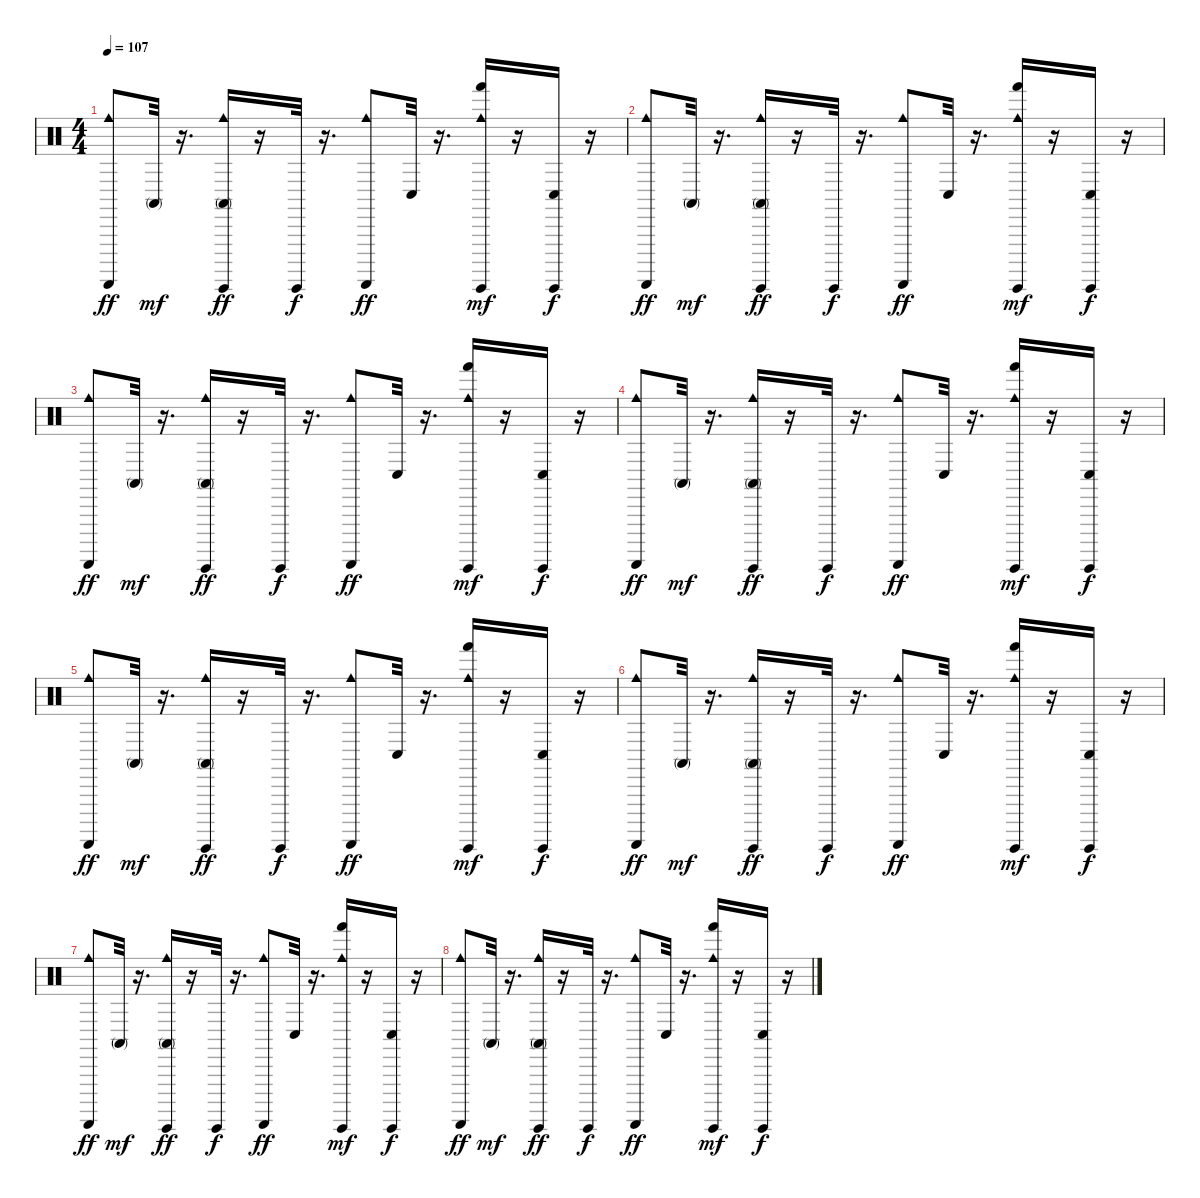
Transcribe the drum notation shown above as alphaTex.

\track "" {instrument percussion}
\staff {score}
\articulation defaults
\ts (4 4)
\tempo 107
\clef neutral
\ks c
("Cowbell medium (hit)" "Guiro (scrap-return)").8{dy ff} "Conga high (mute)".32{dy mf} r.16{d} ("Cowbell medium (hit)" "Conga high (mute)" "Guiro (hit)").16{dy ff} r.16 "Guiro (hit)".32{dy f} r.16{d} ("Cowbell medium (hit)" "Guiro (scrap-return)").8{dy ff} "Conga low (hit)".32 r.16{d} ("Cowbell medium (hit)" "Hand (hit)" "Guiro (hit)").16{dy mf} r.16 ("Conga low (hit)" "Guiro (hit)").16{dy f} r.16 |
("Cowbell medium (hit)" "Guiro (scrap-return)").8{dy ff} "Conga high (mute)".32{dy mf} r.16{d} ("Cowbell medium (hit)" "Conga high (mute)" "Guiro (hit)").16{dy ff} r.16 "Guiro (hit)".32{dy f} r.16{d} ("Cowbell medium (hit)" "Guiro (scrap-return)").8{dy ff} "Conga low (hit)".32 r.16{d} ("Cowbell medium (hit)" "Hand (hit)" "Guiro (hit)").16{dy mf} r.16 ("Conga low (hit)" "Guiro (hit)").16{dy f} r.16 |
("Cowbell medium (hit)" "Guiro (scrap-return)").8{dy ff} "Conga high (mute)".32{dy mf} r.16{d} ("Cowbell medium (hit)" "Conga high (mute)" "Guiro (hit)").16{dy ff} r.16 "Guiro (hit)".32{dy f} r.16{d} ("Cowbell medium (hit)" "Guiro (scrap-return)").8{dy ff} "Conga low (hit)".32 r.16{d} ("Cowbell medium (hit)" "Hand (hit)" "Guiro (hit)").16{dy mf} r.16 ("Conga low (hit)" "Guiro (hit)").16{dy f} r.16 |
("Cowbell medium (hit)" "Guiro (scrap-return)").8{dy ff} "Conga high (mute)".32{dy mf} r.16{d} ("Cowbell medium (hit)" "Conga high (mute)" "Guiro (hit)").16{dy ff} r.16 "Guiro (hit)".32{dy f} r.16{d} ("Cowbell medium (hit)" "Guiro (scrap-return)").8{dy ff} "Conga low (hit)".32 r.16{d} ("Cowbell medium (hit)" "Hand (hit)" "Guiro (hit)").16{dy mf} r.16 ("Conga low (hit)" "Guiro (hit)").16{dy f} r.16 |
("Cowbell medium (hit)" "Guiro (scrap-return)").8{dy ff} "Conga high (mute)".32{dy mf} r.16{d} ("Cowbell medium (hit)" "Conga high (mute)" "Guiro (hit)").16{dy ff} r.16 "Guiro (hit)".32{dy f} r.16{d} ("Cowbell medium (hit)" "Guiro (scrap-return)").8{dy ff} "Conga low (hit)".32 r.16{d} ("Cowbell medium (hit)" "Hand (hit)" "Guiro (hit)").16{dy mf} r.16 ("Conga low (hit)" "Guiro (hit)").16{dy f} r.16 |
("Cowbell medium (hit)" "Guiro (scrap-return)").8{dy ff} "Conga high (mute)".32{dy mf} r.16{d} ("Cowbell medium (hit)" "Conga high (mute)" "Guiro (hit)").16{dy ff} r.16 "Guiro (hit)".32{dy f} r.16{d} ("Cowbell medium (hit)" "Guiro (scrap-return)").8{dy ff} "Conga low (hit)".32 r.16{d} ("Cowbell medium (hit)" "Hand (hit)" "Guiro (hit)").16{dy mf} r.16 ("Conga low (hit)" "Guiro (hit)").16{dy f} r.16 |
("Cowbell medium (hit)" "Guiro (scrap-return)").8{dy ff} "Conga high (mute)".32{dy mf} r.16{d} ("Cowbell medium (hit)" "Conga high (mute)" "Guiro (hit)").16{dy ff} r.16 "Guiro (hit)".32{dy f} r.16{d} ("Cowbell medium (hit)" "Guiro (scrap-return)").8{dy ff} "Conga low (hit)".32 r.16{d} ("Cowbell medium (hit)" "Hand (hit)" "Guiro (hit)").16{dy mf} r.16 ("Conga low (hit)" "Guiro (hit)").16{dy f} r.16 |
("Cowbell medium (hit)" "Guiro (scrap-return)").8{dy ff} "Conga high (mute)".32{dy mf} r.16{d} ("Cowbell medium (hit)" "Conga high (mute)" "Guiro (hit)").16{dy ff} r.16 "Guiro (hit)".32{dy f} r.16{d} ("Cowbell medium (hit)" "Guiro (scrap-return)").8{dy ff} "Conga low (hit)".32 r.16{d} ("Cowbell medium (hit)" "Hand (hit)" "Guiro (hit)").16{dy mf} r.16 ("Conga low (hit)" "Guiro (hit)").16{dy f} r.16
